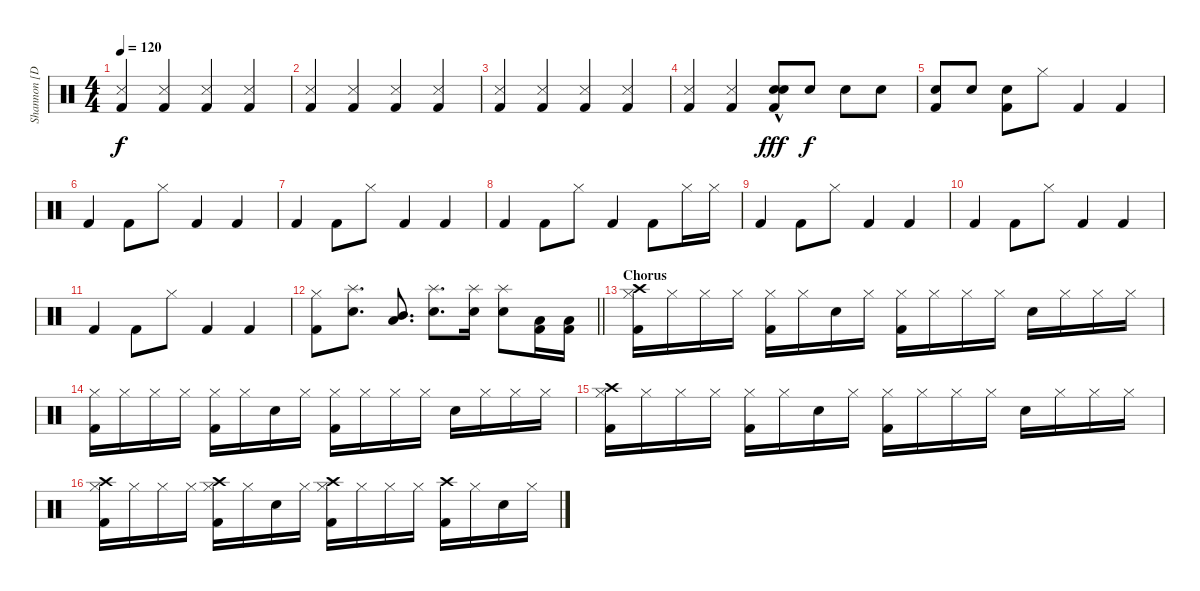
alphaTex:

\track ("Shannon [Drums]" "Shannon [D") {instrument percussion}
\staff {score}
\articulation defaults
\ts (4 4)
\tempo 120
\clef neutral
\ks c
("Snare (side stick) 3" "Kick (hit) 2").4{dy f} ("Snare (side stick) 3" "Kick (hit) 2").4 ("Snare (side stick) 3" "Kick (hit) 2").4 ("Snare (side stick) 3" "Kick (hit) 2").4 |
("Snare (side stick) 3" "Kick (hit) 2").4 ("Snare (side stick) 3" "Kick (hit) 2").4 ("Snare (side stick) 3" "Kick (hit) 2").4 ("Snare (side stick) 3" "Kick (hit) 2").4 |
("Snare (side stick) 3" "Kick (hit) 2").4 ("Snare (side stick) 3" "Kick (hit) 2").4 ("Snare (side stick) 3" "Kick (hit) 2").4 ("Snare (side stick) 3" "Kick (hit) 2").4 |
("Snare (side stick) 3" "Kick (hit) 2").4 ("Snare (side stick) 3" "Kick (hit) 2").4 ("Hand Clap (hit)" "Electric Snare (hit)"{hac} "Kick (hit) 2").8{dy fff volume 4} "Hand Clap (hit)".8{dy f} "Hand Clap (hit)".8 "Hand Clap (hit)".8 |
("Hand Clap (hit)" "Kick (hit) 2").8{volume 6} "Hand Clap (hit)".8 ("Hand Clap (hit)" "Kick (hit) 2").8 "Hi-Hat (closed)".8 "Kick (hit) 2".4 "Kick (hit) 2".4 |
"Kick (hit) 2".4 "Kick (hit) 2".8 "Hi-Hat (closed)".8 "Kick (hit) 2".4 "Kick (hit) 2".4 |
"Kick (hit) 2".4 "Kick (hit) 2".8 "Hi-Hat (closed)".8 "Kick (hit) 2".4 "Kick (hit) 2".4 |
"Kick (hit) 2".4 "Kick (hit) 2".8 "Hi-Hat (closed)".8 "Kick (hit) 2".4 "Kick (hit) 2".8 "Hi-Hat (closed)".16 "Hi-Hat (closed)".16 |
"Kick (hit) 2".4 "Kick (hit) 2".8 "Hi-Hat (closed)".8 "Kick (hit) 2".4 "Kick (hit) 2".4 |
"Kick (hit) 2".4 "Kick (hit) 2".8 "Hi-Hat (closed)".8 "Kick (hit) 2".4 "Kick (hit) 2".4 |
"Kick (hit) 2".4 "Kick (hit) 2".8 "Hi-Hat (closed)".8 "Kick (hit) 2".4 "Kick (hit) 2".4 |
\barLineRight lightlight
("Hi-Hat (closed)" "Kick (hit) 2").8 ("Splash (hit)" "Electric Snare (hit)").8{d} ("Mid Tom (hit)" "Low Tom (hit)").8{d} ("Splash (hit)" "Electric Snare (hit)").8{d} ("Splash (hit)" "Electric Snare (hit)").16 ("Splash (hit)" "Electric Snare (hit)").8 ("Low Tom (hit)" "Kick (hit) 2").16 ("Low Tom (hit)" "Kick (hit) 2").16 |
\section ("" "Chorus")
("Crash high (hit)" "Hi-Hat (closed)" "Kick (hit) 2").16 "Hi-Hat (closed)".16 "Hi-Hat (closed)".16 "Hi-Hat (closed)".16 ("Hi-Hat (closed)" "Kick (hit) 2").16 "Hi-Hat (closed)".16 "Electric Snare (hit)".16 "Hi-Hat (closed)".16 ("Hi-Hat (closed)" "Kick (hit) 2").16 "Hi-Hat (closed)".16 "Hi-Hat (closed)".16 "Hi-Hat (closed)".16 "Electric Snare (hit)".16 "Hi-Hat (closed)".16 "Hi-Hat (closed)".16 "Hi-Hat (closed)".16 |
("Hi-Hat (closed)" "Kick (hit) 2").16 "Hi-Hat (closed)".16 "Hi-Hat (closed)".16 "Hi-Hat (closed)".16 ("Hi-Hat (closed)" "Kick (hit) 2").16 "Hi-Hat (closed)".16 "Electric Snare (hit)".16 "Hi-Hat (closed)".16 ("Hi-Hat (closed)" "Kick (hit) 2").16 "Hi-Hat (closed)".16 "Hi-Hat (closed)".16 "Hi-Hat (closed)".16 "Electric Snare (hit)".16 "Hi-Hat (closed)".16 "Hi-Hat (closed)".16 "Hi-Hat (closed)".16 |
("Crash high (hit)" "Hi-Hat (closed)" "Kick (hit) 2").16 "Hi-Hat (closed)".16 "Hi-Hat (closed)".16 "Hi-Hat (closed)".16 ("Hi-Hat (closed)" "Kick (hit) 2").16 "Hi-Hat (closed)".16 "Electric Snare (hit)".16 "Hi-Hat (closed)".16 ("Hi-Hat (closed)" "Kick (hit) 2").16 "Hi-Hat (closed)".16 "Hi-Hat (closed)".16 "Hi-Hat (closed)".16 "Electric Snare (hit)".16 "Hi-Hat (closed)".16 "Hi-Hat (closed)".16 "Hi-Hat (closed)".16 |
("Crash high (hit)" "Hi-Hat (closed)" "Kick (hit) 2").16 "Hi-Hat (closed)".16 "Hi-Hat (closed)".16 "Hi-Hat (closed)".16 ("Crash high (hit)" "Hi-Hat (closed)" "Kick (hit) 2").16 "Hi-Hat (closed)".16 "Electric Snare (hit)".16 "Hi-Hat (closed)".16 ("Crash high (hit)" "Hi-Hat (closed)" "Kick (hit) 2").16 "Hi-Hat (closed)".16 "Hi-Hat (closed)".16 "Hi-Hat (closed)".16 ("Crash high (hit)" "Kick (hit) 2").16 "Hi-Hat (closed)".16 "Electric Snare (hit)".16 "Hi-Hat (closed)".16
